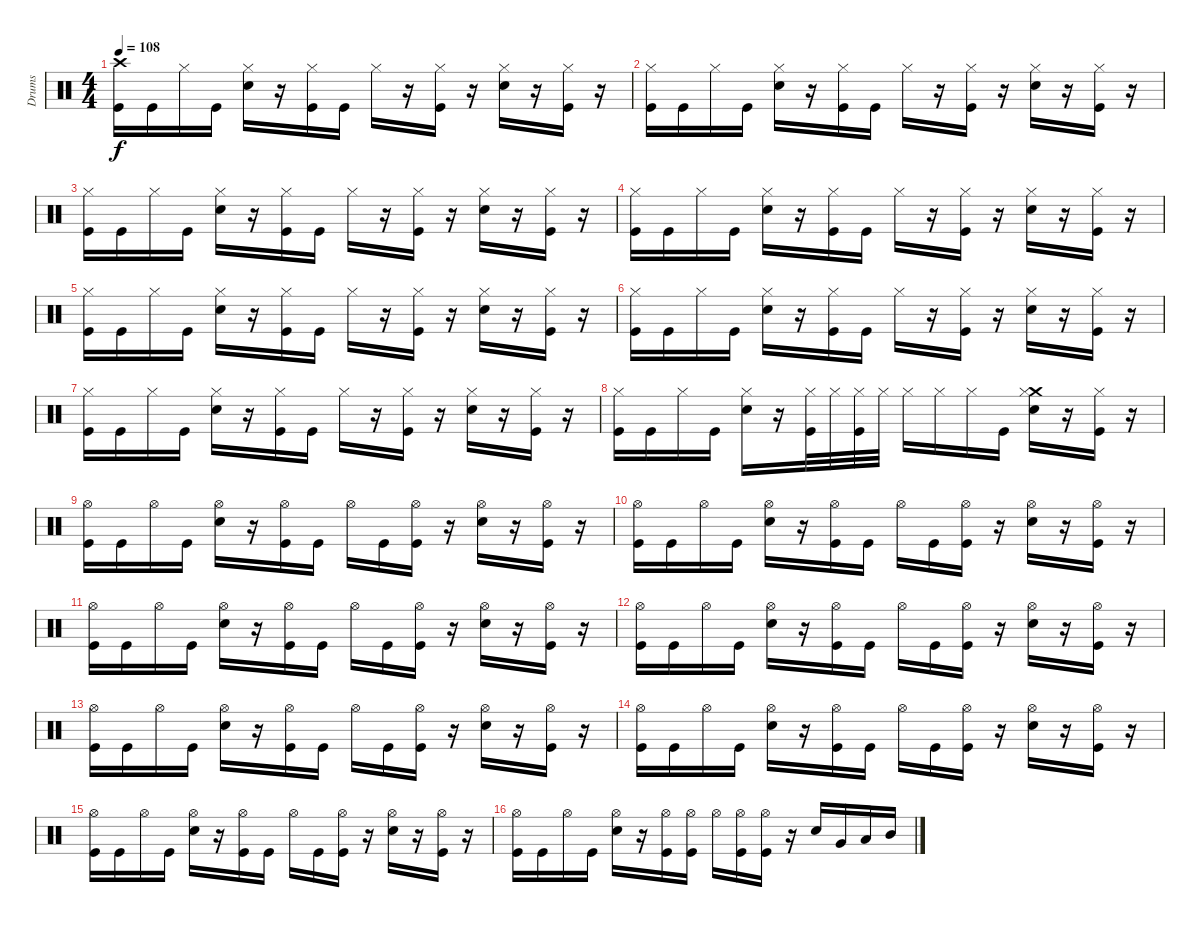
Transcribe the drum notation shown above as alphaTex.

\track ("Drums" "Drums") {instrument percussion}
\staff {score}
\articulation defaults
\ts (4 4)
\tempo 108
\clef neutral
\ks c
("Crash high (hit)" "Kick (hit)").16{dy f} "Kick (hit)".16 "Hi-Hat (closed)".16 "Kick (hit)".16 ("Hi-Hat (closed)" "Electric Snare (hit)").16 r.16 ("Hi-Hat (closed)" "Kick (hit)").16 "Kick (hit)".16 "Hi-Hat (closed)".16 r.16 ("Hi-Hat (closed)" "Kick (hit)").16 r.16 ("Hi-Hat (closed)" "Electric Snare (hit)").16 r.16 ("Hi-Hat (closed)" "Kick (hit)").16 r.16 |
("Hi-Hat (closed)" "Kick (hit)").16 "Kick (hit)".16 "Hi-Hat (closed)".16 "Kick (hit)".16 ("Hi-Hat (closed)" "Electric Snare (hit)").16 r.16 ("Hi-Hat (closed)" "Kick (hit)").16 "Kick (hit)".16 "Hi-Hat (closed)".16 r.16 ("Hi-Hat (closed)" "Kick (hit)").16 r.16 ("Hi-Hat (closed)" "Electric Snare (hit)").16 r.16 ("Hi-Hat (closed)" "Kick (hit)").16 r.16 |
("Hi-Hat (closed)" "Kick (hit)").16 "Kick (hit)".16 "Hi-Hat (closed)".16 "Kick (hit)".16 ("Hi-Hat (closed)" "Electric Snare (hit)").16 r.16 ("Hi-Hat (closed)" "Kick (hit)").16 "Kick (hit)".16 "Hi-Hat (closed)".16 r.16 ("Hi-Hat (closed)" "Kick (hit)").16 r.16 ("Hi-Hat (closed)" "Electric Snare (hit)").16 r.16 ("Hi-Hat (closed)" "Kick (hit)").16 r.16 |
("Hi-Hat (closed)" "Kick (hit)").16 "Kick (hit)".16 "Hi-Hat (closed)".16 "Kick (hit)".16 ("Hi-Hat (closed)" "Electric Snare (hit)").16 r.16 ("Hi-Hat (closed)" "Kick (hit)").16 "Kick (hit)".16 "Hi-Hat (closed)".16 r.16 ("Hi-Hat (closed)" "Kick (hit)").16 r.16 ("Hi-Hat (closed)" "Electric Snare (hit)").16 r.16 ("Hi-Hat (closed)" "Kick (hit)").16 r.16 |
("Hi-Hat (closed)" "Kick (hit)").16 "Kick (hit)".16 "Hi-Hat (closed)".16 "Kick (hit)".16 ("Hi-Hat (closed)" "Electric Snare (hit)").16 r.16 ("Hi-Hat (closed)" "Kick (hit)").16 "Kick (hit)".16 "Hi-Hat (closed)".16 r.16 ("Hi-Hat (closed)" "Kick (hit)").16 r.16 ("Hi-Hat (closed)" "Electric Snare (hit)").16 r.16 ("Hi-Hat (closed)" "Kick (hit)").16 r.16 |
("Hi-Hat (closed)" "Kick (hit)").16 "Kick (hit)".16 "Hi-Hat (closed)".16 "Kick (hit)".16 ("Hi-Hat (closed)" "Electric Snare (hit)").16 r.16 ("Hi-Hat (closed)" "Kick (hit)").16 "Kick (hit)".16 "Hi-Hat (closed)".16 r.16 ("Hi-Hat (closed)" "Kick (hit)").16 r.16 ("Hi-Hat (closed)" "Electric Snare (hit)").16 r.16 ("Hi-Hat (closed)" "Kick (hit)").16 r.16 |
("Hi-Hat (closed)" "Kick (hit)").16 "Kick (hit)".16 "Hi-Hat (closed)".16 "Kick (hit)".16 ("Hi-Hat (closed)" "Electric Snare (hit)").16 r.16 ("Hi-Hat (closed)" "Kick (hit)").16 "Kick (hit)".16 "Hi-Hat (closed)".16 r.16 ("Hi-Hat (closed)" "Kick (hit)").16 r.16 ("Hi-Hat (closed)" "Electric Snare (hit)").16 r.16 ("Hi-Hat (closed)" "Kick (hit)").16 r.16 |
("Hi-Hat (closed)" "Kick (hit)").16 "Kick (hit)".16 "Hi-Hat (closed)".16 "Kick (hit)".16 ("Hi-Hat (closed)" "Electric Snare (hit)").16 r.16 ("Hi-Hat (closed)" "Kick (hit)").32 "Hi-Hat (closed)".32 ("Hi-Hat (closed)" "Kick (hit)").32 "Hi-Hat (closed)".32 "Hi-Hat (closed)".16 "Hi-Hat (closed)".16 "Hi-Hat (closed)".16 "Kick (hit)".16 ("Crash medium (hit)" "Hi-Hat (closed)" "Electric Snare (hit)").16 r.16 ("Hi-Hat (closed)" "Kick (hit)").16 r.16 |
("Hi-Hat (open)" "Kick (hit)").16 "Kick (hit)".16 "Hi-Hat (open)".16 "Kick (hit)".16 ("Hi-Hat (open)" "Electric Snare (hit)").16 r.16 ("Hi-Hat (open)" "Kick (hit)").16 "Kick (hit)".16 "Hi-Hat (open)".16 "Kick (hit)".16 ("Hi-Hat (open)" "Kick (hit)").16 r.16 ("Hi-Hat (open)" "Electric Snare (hit)").16 r.16 ("Hi-Hat (open)" "Kick (hit)").16 r.16 |
("Hi-Hat (open)" "Kick (hit)").16 "Kick (hit)".16 "Hi-Hat (open)".16 "Kick (hit)".16 ("Hi-Hat (open)" "Electric Snare (hit)").16 r.16 ("Hi-Hat (open)" "Kick (hit)").16 "Kick (hit)".16 "Hi-Hat (open)".16 "Kick (hit)".16 ("Hi-Hat (open)" "Kick (hit)").16 r.16 ("Hi-Hat (open)" "Electric Snare (hit)").16 r.16 ("Hi-Hat (open)" "Kick (hit)").16 r.16 |
("Hi-Hat (open)" "Kick (hit)").16 "Kick (hit)".16 "Hi-Hat (open)".16 "Kick (hit)".16 ("Hi-Hat (open)" "Electric Snare (hit)").16 r.16 ("Hi-Hat (open)" "Kick (hit)").16 "Kick (hit)".16 "Hi-Hat (open)".16 "Kick (hit)".16 ("Hi-Hat (open)" "Kick (hit)").16 r.16 ("Hi-Hat (open)" "Electric Snare (hit)").16 r.16 ("Hi-Hat (open)" "Kick (hit)").16 r.16 |
("Hi-Hat (open)" "Kick (hit)").16 "Kick (hit)".16 "Hi-Hat (open)".16 "Kick (hit)".16 ("Hi-Hat (open)" "Electric Snare (hit)").16 r.16 ("Hi-Hat (open)" "Kick (hit)").16 "Kick (hit)".16 "Hi-Hat (open)".16 "Kick (hit)".16 ("Hi-Hat (open)" "Kick (hit)").16 r.16 ("Hi-Hat (open)" "Electric Snare (hit)").16 r.16 ("Hi-Hat (open)" "Kick (hit)").16 r.16 |
("Hi-Hat (open)" "Kick (hit)").16 "Kick (hit)".16 "Hi-Hat (open)".16 "Kick (hit)".16 ("Hi-Hat (open)" "Electric Snare (hit)").16 r.16 ("Hi-Hat (open)" "Kick (hit)").16 "Kick (hit)".16 "Hi-Hat (open)".16 "Kick (hit)".16 ("Hi-Hat (open)" "Kick (hit)").16 r.16 ("Hi-Hat (open)" "Electric Snare (hit)").16 r.16 ("Hi-Hat (open)" "Kick (hit)").16 r.16 |
("Hi-Hat (open)" "Kick (hit)").16 "Kick (hit)".16 "Hi-Hat (open)".16 "Kick (hit)".16 ("Hi-Hat (open)" "Electric Snare (hit)").16 r.16 ("Hi-Hat (open)" "Kick (hit)").16 "Kick (hit)".16 "Hi-Hat (open)".16 "Kick (hit)".16 ("Hi-Hat (open)" "Kick (hit)").16 r.16 ("Hi-Hat (open)" "Electric Snare (hit)").16 r.16 ("Hi-Hat (open)" "Kick (hit)").16 r.16 |
("Hi-Hat (open)" "Kick (hit)").16 "Kick (hit)".16 "Hi-Hat (open)".16 "Kick (hit)".16 ("Hi-Hat (open)" "Electric Snare (hit)").16 r.16 ("Hi-Hat (open)" "Kick (hit)").16 "Kick (hit)".16 "Hi-Hat (open)".16 "Kick (hit)".16 ("Hi-Hat (open)" "Kick (hit)").16 r.16 ("Hi-Hat (open)" "Electric Snare (hit)").16 r.16 ("Hi-Hat (open)" "Kick (hit)").16 r.16 |
("Hi-Hat (open)" "Kick (hit)").16 "Kick (hit)".16 "Hi-Hat (open)".16 "Kick (hit)".16 ("Hi-Hat (open)" "Electric Snare (hit)").16 r.16 ("Hi-Hat (open)" "Kick (hit)").16 ("Hi-Hat (open)" "Kick (hit)").16 "Hi-Hat (open)".16 ("Hi-Hat (open)" "Kick (hit)").16 ("Hi-Hat (open)" "Kick (hit)").16 r.16 "Electric Snare (hit)".16 "Very Low Tom (hit)".16 "Low Tom (hit)".16 "Mid Tom (hit)".16
